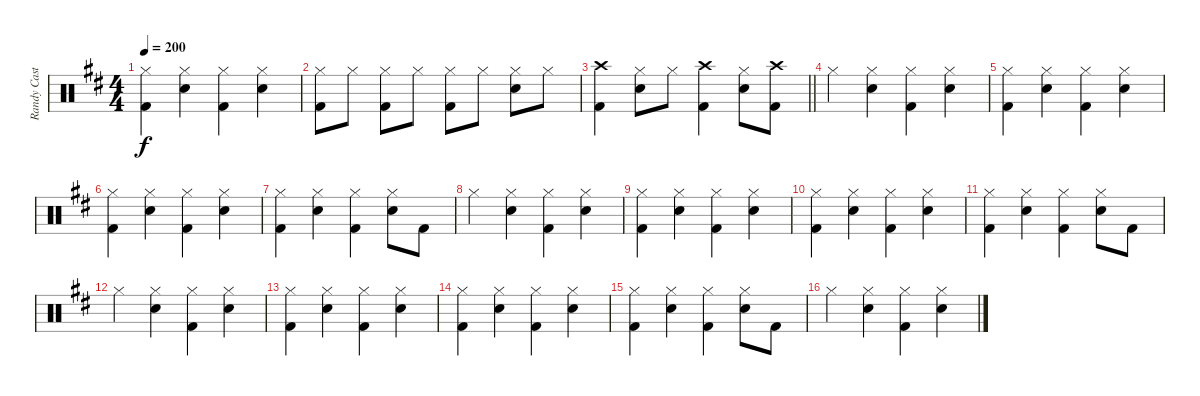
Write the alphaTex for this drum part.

\track ("Randy Castillo" "Randy Cast") {instrument percussion}
\staff {score}
\articulation defaults
\ts (4 4)
\tempo 200
\clef neutral
\ks d
("Hi-Hat (closed)" "Kick (hit) 2").4{dy f} ("Hi-Hat (closed)" "Snare (hit) 2").4 ("Hi-Hat (closed)" "Kick (hit) 2").4 ("Hi-Hat (closed)" "Snare (hit) 2").4 |
("Hi-Hat (closed)" "Kick (hit) 2").8 "Hi-Hat (closed)".8 ("Hi-Hat (closed)" "Kick (hit) 2").8 "Hi-Hat (closed)".8 ("Hi-Hat (closed)" "Kick (hit) 2").8 "Hi-Hat (closed)".8 ("Hi-Hat (closed)" "Snare (hit) 2").8 "Hi-Hat (closed)".8 |
\barLineRight lightlight
("Kick (hit) 2" "Crash high (hit)").4 ("Hi-Hat (closed)" "Snare (hit) 2").8 "Hi-Hat (closed)".8 ("Kick (hit) 2" "Crash high (hit)").4 ("Hi-Hat (closed)" "Snare (hit) 2").8 ("Kick (hit) 2" "Crash high (hit)").8 |
"Hi-Hat (closed)".4 ("Hi-Hat (closed)" "Snare (hit) 2").4 ("Hi-Hat (closed)" "Kick (hit) 2").4 ("Hi-Hat (closed)" "Snare (hit) 2").4 |
("Hi-Hat (closed)" "Kick (hit) 2").4 ("Hi-Hat (closed)" "Snare (hit) 2").4 ("Hi-Hat (closed)" "Kick (hit) 2").4 ("Hi-Hat (closed)" "Snare (hit) 2").4 |
("Hi-Hat (closed)" "Kick (hit) 2").4 ("Hi-Hat (closed)" "Snare (hit) 2").4 ("Hi-Hat (closed)" "Kick (hit) 2").4 ("Hi-Hat (closed)" "Snare (hit) 2").4 |
("Hi-Hat (closed)" "Kick (hit) 2").4 ("Hi-Hat (closed)" "Snare (hit) 2").4 ("Hi-Hat (closed)" "Kick (hit) 2").4 ("Hi-Hat (closed)" "Snare (hit) 2").8 "Kick (hit) 2".8 |
"Hi-Hat (closed)".4 ("Hi-Hat (closed)" "Snare (hit) 2").4 ("Hi-Hat (closed)" "Kick (hit) 2").4 ("Hi-Hat (closed)" "Snare (hit) 2").4 |
("Hi-Hat (closed)" "Kick (hit) 2").4 ("Hi-Hat (closed)" "Snare (hit) 2").4 ("Hi-Hat (closed)" "Kick (hit) 2").4 ("Hi-Hat (closed)" "Snare (hit) 2").4 |
("Hi-Hat (closed)" "Kick (hit) 2").4 ("Hi-Hat (closed)" "Snare (hit) 2").4 ("Hi-Hat (closed)" "Kick (hit) 2").4 ("Hi-Hat (closed)" "Snare (hit) 2").4 |
("Hi-Hat (closed)" "Kick (hit) 2").4 ("Hi-Hat (closed)" "Snare (hit) 2").4 ("Hi-Hat (closed)" "Kick (hit) 2").4 ("Hi-Hat (closed)" "Snare (hit) 2").8 "Kick (hit) 2".8 |
"Hi-Hat (closed)".4 ("Hi-Hat (closed)" "Snare (hit) 2").4 ("Hi-Hat (closed)" "Kick (hit) 2").4 ("Hi-Hat (closed)" "Snare (hit) 2").4 |
("Hi-Hat (closed)" "Kick (hit) 2").4 ("Hi-Hat (closed)" "Snare (hit) 2").4 ("Hi-Hat (closed)" "Kick (hit) 2").4 ("Hi-Hat (closed)" "Snare (hit) 2").4 |
("Hi-Hat (closed)" "Kick (hit) 2").4 ("Hi-Hat (closed)" "Snare (hit) 2").4 ("Hi-Hat (closed)" "Kick (hit) 2").4 ("Hi-Hat (closed)" "Snare (hit) 2").4 |
("Hi-Hat (closed)" "Kick (hit) 2").4 ("Hi-Hat (closed)" "Snare (hit) 2").4 ("Hi-Hat (closed)" "Kick (hit) 2").4 ("Hi-Hat (closed)" "Snare (hit) 2").8 "Kick (hit) 2".8 |
"Hi-Hat (closed)".4 ("Hi-Hat (closed)" "Snare (hit) 2").4 ("Hi-Hat (closed)" "Kick (hit) 2").4 ("Hi-Hat (closed)" "Snare (hit) 2").4
